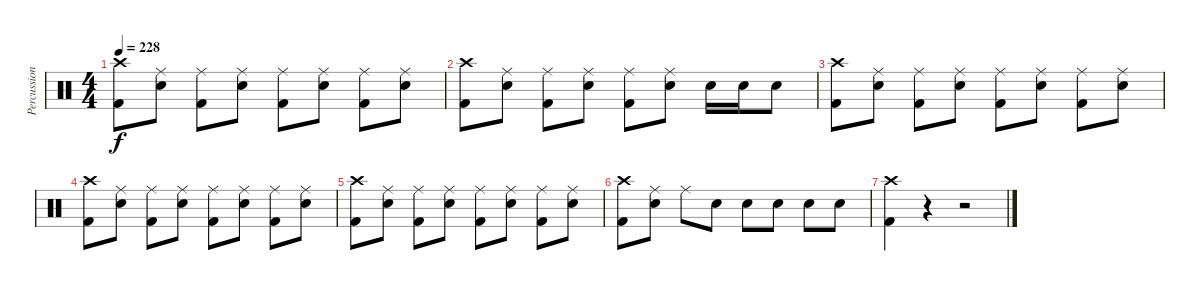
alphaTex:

\track ("Percussion" "Percussion") {instrument percussion}
\staff {score}
\articulation defaults
\ts (4 4)
\tempo 228
\clef neutral
\ks aminor
("Crash high (hit)" "Kick (hit) 2").8{dy f} ("Ride (middle)" "Snare (hit) 2").8 ("Ride (middle)" "Kick (hit) 2").8 ("Ride (middle)" "Snare (hit) 2").8 ("Ride (middle)" "Kick (hit) 2").8 ("Ride (middle)" "Snare (hit) 2").8 ("Ride (middle)" "Kick (hit) 2").8 ("Ride (middle)" "Snare (hit) 2").8 |
("Crash high (hit)" "Kick (hit) 2").8 ("Ride (middle)" "Snare (hit) 2").8 ("Ride (middle)" "Kick (hit) 2").8 ("Ride (middle)" "Snare (hit) 2").8 ("Ride (middle)" "Kick (hit) 2").8 ("Ride (middle)" "Snare (hit) 2").8 "Snare (hit) 2".16 "Snare (hit) 2".16 "Snare (hit) 2".8 |
("Crash high (hit)" "Kick (hit) 2").8 ("Ride (middle)" "Snare (hit) 2").8 ("Ride (middle)" "Kick (hit) 2").8 ("Ride (middle)" "Snare (hit) 2").8 ("Ride (middle)" "Kick (hit) 2").8 ("Ride (middle)" "Snare (hit) 2").8 ("Ride (middle)" "Kick (hit) 2").8 ("Ride (middle)" "Snare (hit) 2").8 |
("Crash high (hit)" "Kick (hit) 2").8 ("Ride (middle)" "Snare (hit) 2").8 ("Ride (middle)" "Kick (hit) 2").8 ("Ride (middle)" "Snare (hit) 2").8 ("Ride (middle)" "Kick (hit) 2").8 ("Ride (middle)" "Snare (hit) 2").8 ("Ride (middle)" "Kick (hit) 2").8 ("Ride (middle)" "Snare (hit) 2").8 |
("Crash high (hit)" "Kick (hit) 2").8 ("Ride (middle)" "Snare (hit) 2").8 ("Ride (middle)" "Kick (hit) 2").8 ("Ride (middle)" "Snare (hit) 2").8 ("Ride (middle)" "Kick (hit) 2").8 ("Ride (middle)" "Snare (hit) 2").8 ("Ride (middle)" "Kick (hit) 2").8 ("Ride (middle)" "Snare (hit) 2").8 |
("Crash high (hit)" "Kick (hit) 2").8 ("Ride (middle)" "Snare (hit) 2").8 "Ride (middle)".8 "Snare (hit) 2".8 "Snare (hit) 2".8 "Snare (hit) 2".8 "Snare (hit) 2".8 "Snare (hit) 2".8 |
("Crash high (hit)" "Kick (hit) 2").4 r.4 r.2
